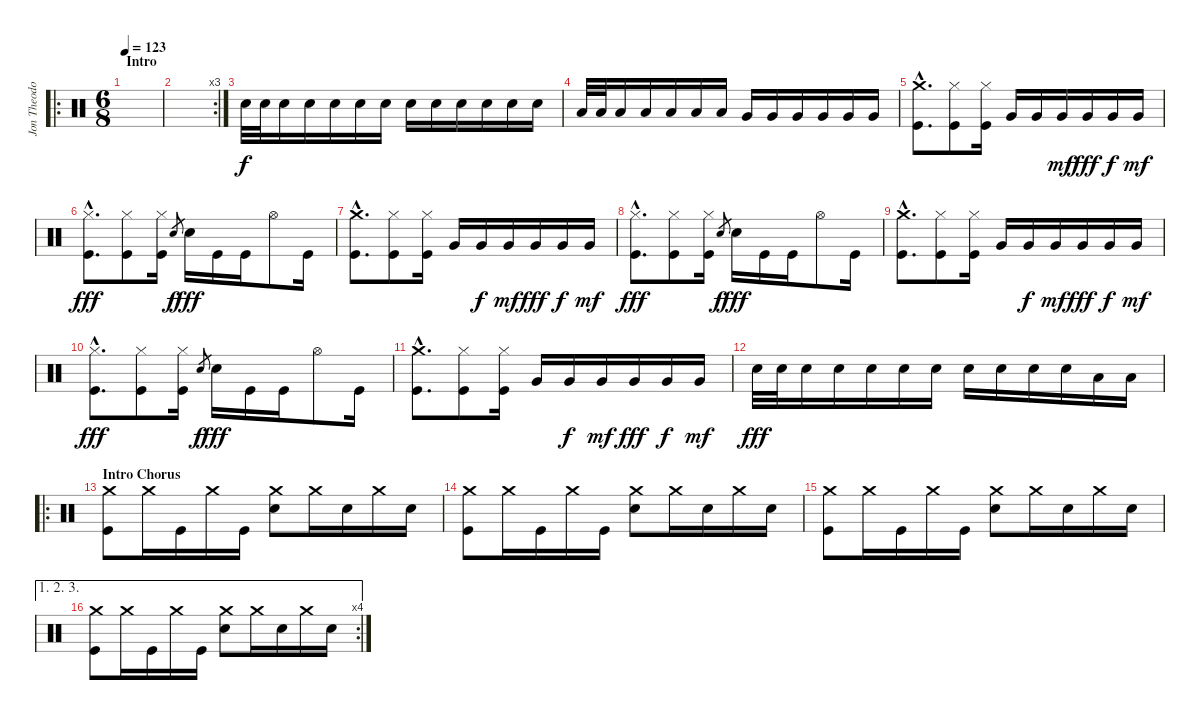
\track ("Jon Theodore - Drums" "Jon Theodo") {instrument percussion}
\staff {score}
\articulation defaults
\ro
\ts (6 8)
\section ("" "Intro")
\tempo 123
\clef neutral
\ks c
|
\rc 3
|
"Snare (hit) 2".32 "Snare (hit) 2".32 "Snare (hit) 2".16 "Snare (hit) 2".16 "Snare (hit) 2".16 "Snare (hit) 2".16 "Snare (hit) 2".16 "Snare (hit) 2".16 "Snare (hit) 2".16 "Snare (hit) 2".16 "Snare (hit) 2".16 "Snare (hit) 2".16 "Snare (hit) 2".16 |
"Low Tom (hit)".32 "Low Tom (hit)".32 "Low Tom (hit)".16 "Low Tom (hit)".16 "Low Tom (hit)".16 "Low Tom (hit)".16 "Low Tom (hit)".16 "Very Low Tom (hit)".16 "Very Low Tom (hit)".16 "Very Low Tom (hit)".16 "Very Low Tom (hit)".16 "Very Low Tom (hit)".16 "Very Low Tom (hit)".16 |
("Crash medium (hit)"{hac} "Kick (hit)"{hac}).8{d} ("Hi-Hat (closed)" "Kick (hit)").8 ("Hi-Hat (closed)" "Kick (hit)").16 "Very Low Tom (hit)".16 "Very Low Tom (hit)".16{dy f} "Very Low Tom (hit)".16{dy mf} "Very Low Tom (hit)".16{dy fff} "Very Low Tom (hit)".16{dy f} "Very Low Tom (hit)".16{dy mf} |
("Hi-Hat (closed)"{hac} "Kick (hit)"{hac}).8{d dy fff} ("Hi-Hat (closed)" "Kick (hit)").8 ("Hi-Hat (closed)" "Kick (hit)").16 "Snare (hit) 2".8{gr dy f} "Snare (hit) 2".16{dy fff} "Kick (hit)".16 "Kick (hit)".16 "Hi-Hat (open)".8 "Kick (hit)".16 |
("Crash medium (hit)"{hac} "Kick (hit)"{hac}).8{d} ("Hi-Hat (closed)" "Kick (hit)").8 ("Hi-Hat (closed)" "Kick (hit)").16 "Very Low Tom (hit)".16 "Very Low Tom (hit)".16{dy f} "Very Low Tom (hit)".16{dy mf} "Very Low Tom (hit)".16{dy fff} "Very Low Tom (hit)".16{dy f} "Very Low Tom (hit)".16{dy mf} |
("Hi-Hat (closed)"{hac} "Kick (hit)"{hac}).8{d dy fff} ("Hi-Hat (closed)" "Kick (hit)").8 ("Hi-Hat (closed)" "Kick (hit)").16 "Snare (hit) 2".8{gr dy f} "Snare (hit) 2".16{dy fff} "Kick (hit)".16 "Kick (hit)".16 "Hi-Hat (open)".8 "Kick (hit)".16 |
("Crash medium (hit)"{hac} "Kick (hit)"{hac}).8{d} ("Hi-Hat (closed)" "Kick (hit)").8 ("Hi-Hat (closed)" "Kick (hit)").16 "Very Low Tom (hit)".16 "Very Low Tom (hit)".16{dy f} "Very Low Tom (hit)".16{dy mf} "Very Low Tom (hit)".16{dy fff} "Very Low Tom (hit)".16{dy f} "Very Low Tom (hit)".16{dy mf} |
("Hi-Hat (closed)"{hac} "Kick (hit)"{hac}).8{d dy fff} ("Hi-Hat (closed)" "Kick (hit)").8 ("Hi-Hat (closed)" "Kick (hit)").16 "Snare (hit) 2".8{gr dy f} "Snare (hit) 2".16{dy fff} "Kick (hit)".16 "Kick (hit)".16 "Hi-Hat (open)".8 "Kick (hit)".16 |
("Crash medium (hit)"{hac} "Kick (hit)"{hac}).8{d} ("Hi-Hat (closed)" "Kick (hit)").8 ("Hi-Hat (closed)" "Kick (hit)").16 "Very Low Tom (hit)".16 "Very Low Tom (hit)".16{dy f} "Very Low Tom (hit)".16{dy mf} "Very Low Tom (hit)".16{dy fff} "Very Low Tom (hit)".16{dy f} "Very Low Tom (hit)".16{dy mf} |
"Snare (hit) 2".32{dy fff} "Snare (hit) 2".32 "Snare (hit) 2".16 "Snare (hit) 2".16 "Snare (hit) 2".16 "Snare (hit) 2".16 "Snare (hit) 2".16 "Snare (hit) 2".16 "Snare (hit) 2".16 "Snare (hit) 2".16 "Snare (hit) 2".16 "Low Tom (hit)".16 "Low Tom (hit)".16 |
\ro
\section ("" "Intro Chorus")
("Crash medium (hit)" "Kick (hit)").8 "Crash medium (hit)".16 "Kick (hit)".16 "Crash medium (hit)".16 "Kick (hit)".16 ("Crash medium (hit)" "Snare (hit) 2").8 "Crash medium (hit)".16 "Snare (hit) 2".16 "Crash medium (hit)".16 "Snare (hit) 2".16 |
("Crash medium (hit)" "Kick (hit)").8 "Crash medium (hit)".16 "Kick (hit)".16 "Crash medium (hit)".16 "Kick (hit)".16 ("Crash medium (hit)" "Snare (hit) 2").8 "Crash medium (hit)".16 "Snare (hit) 2".16 "Crash medium (hit)".16 "Snare (hit) 2".16 |
("Crash medium (hit)" "Kick (hit)").8 "Crash medium (hit)".16 "Kick (hit)".16 "Crash medium (hit)".16 "Kick (hit)".16 ("Crash medium (hit)" "Snare (hit) 2").8 "Crash medium (hit)".16 "Snare (hit) 2".16 "Crash medium (hit)".16 "Snare (hit) 2".16 |
\ae (1 2 3)
\rc 4
("Crash medium (hit)" "Kick (hit)").8 "Crash medium (hit)".16 "Kick (hit)".16 "Crash medium (hit)".16 "Kick (hit)".16 ("Crash medium (hit)" "Snare (hit) 2").8 "Crash medium (hit)".16 "Snare (hit) 2".16 "Crash medium (hit)".16 "Snare (hit) 2".16
